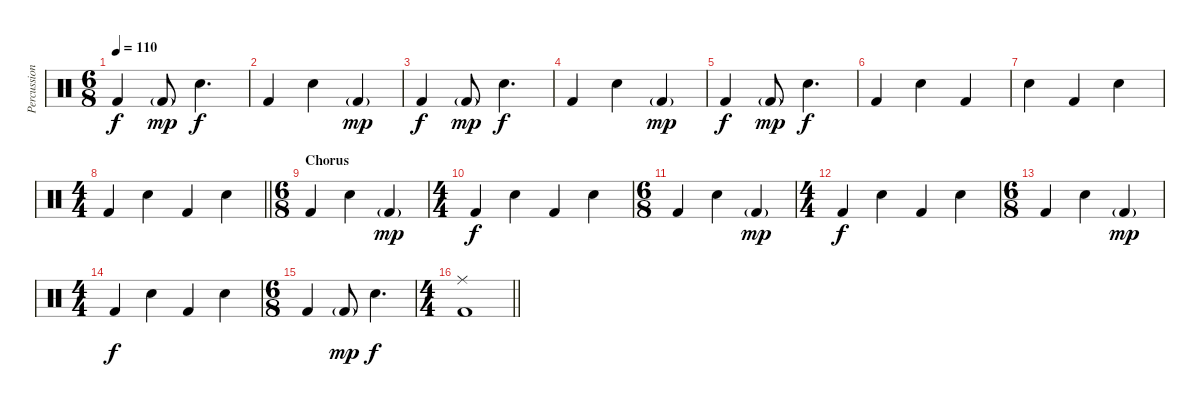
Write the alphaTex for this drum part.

\track ("Percussion" "Percussion") {instrument percussion}
\staff {score}
\articulation defaults
\ts (6 8)
\tempo 110
\clef neutral
\ks c "Kick (hit) 2".4{dy f} "Kick (hit) 2"{g}.8{dy mp} "Snare (hit) 2".4{d dy f}
|
"Kick (hit) 2".4 "Snare (hit) 2".4 "Kick (hit) 2"{g}.4{dy mp} |
"Kick (hit) 2".4{dy f} "Kick (hit) 2"{g}.8{dy mp} "Snare (hit) 2".4{d dy f} |
"Kick (hit) 2".4 "Snare (hit) 2".4 "Kick (hit) 2"{g}.4{dy mp} |
"Kick (hit) 2".4{dy f} "Kick (hit) 2"{g}.8{dy mp} "Snare (hit) 2".4{d dy f} |
"Kick (hit) 2".4 "Snare (hit) 2".4 "Kick (hit) 2".4 |
"Snare (hit) 2".4 "Kick (hit) 2".4 "Snare (hit) 2".4 |
\ts (4 4)
\barLineRight lightlight "Kick (hit) 2".4 "Snare (hit) 2".4 "Kick (hit) 2".4 "Snare (hit) 2".4
|
\ts (6 8)
\section ("" "Chorus")
"Kick (hit) 2".4 "Snare (hit) 2".4 "Kick (hit) 2"{g}.4{dy mp} |
\ts (4 4)
"Kick (hit) 2".4{dy f} "Snare (hit) 2".4 "Kick (hit) 2".4 "Snare (hit) 2".4 |
\ts (6 8)
"Kick (hit) 2".4 "Snare (hit) 2".4 "Kick (hit) 2"{g}.4{dy mp} |
\ts (4 4)
"Kick (hit) 2".4{dy f} "Snare (hit) 2".4 "Kick (hit) 2".4 "Snare (hit) 2".4 |
\ts (6 8)
"Kick (hit) 2".4 "Snare (hit) 2".4 "Kick (hit) 2"{g}.4{dy mp} |
\ts (4 4)
"Kick (hit) 2".4{dy f} "Snare (hit) 2".4 "Kick (hit) 2".4 "Snare (hit) 2".4 |
\ts (6 8)
"Kick (hit) 2".4 "Kick (hit) 2"{g}.8{dy mp} "Snare (hit) 2".4{d dy f} |
\ts (4 4)
\barLineRight lightlight
("Ride (middle)" "Kick (hit) 2").1
